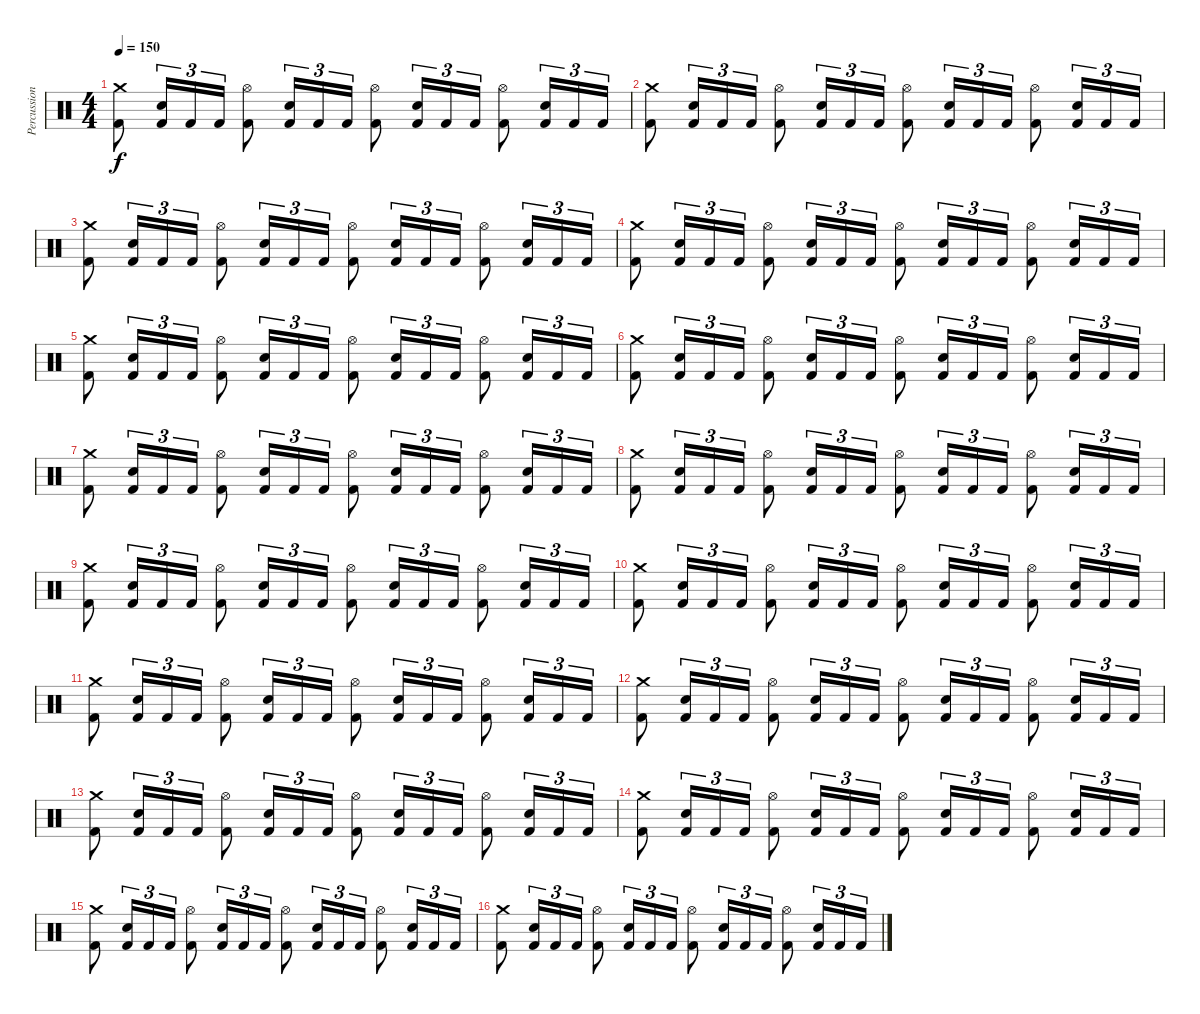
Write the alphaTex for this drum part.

\track ("Percussion" "Percussion") {instrument percussion}
\staff {score}
\articulation defaults
\ts (4 4)
\tempo 150
\clef neutral
\ks c
("Kick (hit) 2" "Crash medium (hit)").8{dy f} ("Kick (hit) 2" "Snare (hit) 2").16{tu (3 2)} "Kick (hit) 2".16{tu (3 2)} "Kick (hit) 2".16{tu (3 2)} ("Kick (hit) 2" "Hi-Hat (open)").8 ("Kick (hit) 2" "Snare (hit) 2").16{tu (3 2)} "Kick (hit) 2".16{tu (3 2)} "Kick (hit) 2".16{tu (3 2)} ("Kick (hit) 2" "Hi-Hat (open)").8 ("Kick (hit) 2" "Snare (hit) 2").16{tu (3 2)} "Kick (hit) 2".16{tu (3 2)} "Kick (hit) 2".16{tu (3 2)} ("Kick (hit) 2" "Hi-Hat (open)").8 ("Kick (hit) 2" "Snare (hit) 2").16{tu (3 2)} "Kick (hit) 2".16{tu (3 2)} "Kick (hit) 2".16{tu (3 2)} |
("Kick (hit) 2" "Crash medium (hit)").8 ("Kick (hit) 2" "Snare (hit) 2").16{tu (3 2)} "Kick (hit) 2".16{tu (3 2)} "Kick (hit) 2".16{tu (3 2)} ("Kick (hit) 2" "Hi-Hat (open)").8 ("Kick (hit) 2" "Snare (hit) 2").16{tu (3 2)} "Kick (hit) 2".16{tu (3 2)} "Kick (hit) 2".16{tu (3 2)} ("Kick (hit) 2" "Hi-Hat (open)").8 ("Kick (hit) 2" "Snare (hit) 2").16{tu (3 2)} "Kick (hit) 2".16{tu (3 2)} "Kick (hit) 2".16{tu (3 2)} ("Kick (hit) 2" "Hi-Hat (open)").8 ("Kick (hit) 2" "Snare (hit) 2").16{tu (3 2)} "Kick (hit) 2".16{tu (3 2)} "Kick (hit) 2".16{tu (3 2)} |
("Kick (hit) 2" "Crash medium (hit)").8 ("Kick (hit) 2" "Snare (hit) 2").16{tu (3 2)} "Kick (hit) 2".16{tu (3 2)} "Kick (hit) 2".16{tu (3 2)} ("Kick (hit) 2" "Hi-Hat (open)").8 ("Kick (hit) 2" "Snare (hit) 2").16{tu (3 2)} "Kick (hit) 2".16{tu (3 2)} "Kick (hit) 2".16{tu (3 2)} ("Kick (hit) 2" "Hi-Hat (open)").8 ("Kick (hit) 2" "Snare (hit) 2").16{tu (3 2)} "Kick (hit) 2".16{tu (3 2)} "Kick (hit) 2".16{tu (3 2)} ("Kick (hit) 2" "Hi-Hat (open)").8 ("Kick (hit) 2" "Snare (hit) 2").16{tu (3 2)} "Kick (hit) 2".16{tu (3 2)} "Kick (hit) 2".16{tu (3 2)} |
("Kick (hit) 2" "Crash medium (hit)").8 ("Kick (hit) 2" "Snare (hit) 2").16{tu (3 2)} "Kick (hit) 2".16{tu (3 2)} "Kick (hit) 2".16{tu (3 2)} ("Kick (hit) 2" "Hi-Hat (open)").8 ("Kick (hit) 2" "Snare (hit) 2").16{tu (3 2)} "Kick (hit) 2".16{tu (3 2)} "Kick (hit) 2".16{tu (3 2)} ("Kick (hit) 2" "Hi-Hat (open)").8 ("Kick (hit) 2" "Snare (hit) 2").16{tu (3 2)} "Kick (hit) 2".16{tu (3 2)} "Kick (hit) 2".16{tu (3 2)} ("Kick (hit) 2" "Hi-Hat (open)").8 ("Kick (hit) 2" "Snare (hit) 2").16{tu (3 2)} "Kick (hit) 2".16{tu (3 2)} "Kick (hit) 2".16{tu (3 2)} |
("Kick (hit) 2" "Crash medium (hit)").8 ("Kick (hit) 2" "Snare (hit) 2").16{tu (3 2)} "Kick (hit) 2".16{tu (3 2)} "Kick (hit) 2".16{tu (3 2)} ("Kick (hit) 2" "Hi-Hat (open)").8 ("Kick (hit) 2" "Snare (hit) 2").16{tu (3 2)} "Kick (hit) 2".16{tu (3 2)} "Kick (hit) 2".16{tu (3 2)} ("Kick (hit) 2" "Hi-Hat (open)").8 ("Kick (hit) 2" "Snare (hit) 2").16{tu (3 2)} "Kick (hit) 2".16{tu (3 2)} "Kick (hit) 2".16{tu (3 2)} ("Kick (hit) 2" "Hi-Hat (open)").8 ("Kick (hit) 2" "Snare (hit) 2").16{tu (3 2)} "Kick (hit) 2".16{tu (3 2)} "Kick (hit) 2".16{tu (3 2)} |
("Kick (hit) 2" "Crash medium (hit)").8 ("Kick (hit) 2" "Snare (hit) 2").16{tu (3 2)} "Kick (hit) 2".16{tu (3 2)} "Kick (hit) 2".16{tu (3 2)} ("Kick (hit) 2" "Hi-Hat (open)").8 ("Kick (hit) 2" "Snare (hit) 2").16{tu (3 2)} "Kick (hit) 2".16{tu (3 2)} "Kick (hit) 2".16{tu (3 2)} ("Kick (hit) 2" "Hi-Hat (open)").8 ("Kick (hit) 2" "Snare (hit) 2").16{tu (3 2)} "Kick (hit) 2".16{tu (3 2)} "Kick (hit) 2".16{tu (3 2)} ("Kick (hit) 2" "Hi-Hat (open)").8 ("Kick (hit) 2" "Snare (hit) 2").16{tu (3 2)} "Kick (hit) 2".16{tu (3 2)} "Kick (hit) 2".16{tu (3 2)} |
("Kick (hit) 2" "Crash medium (hit)").8 ("Kick (hit) 2" "Snare (hit) 2").16{tu (3 2)} "Kick (hit) 2".16{tu (3 2)} "Kick (hit) 2".16{tu (3 2)} ("Kick (hit) 2" "Hi-Hat (open)").8 ("Kick (hit) 2" "Snare (hit) 2").16{tu (3 2)} "Kick (hit) 2".16{tu (3 2)} "Kick (hit) 2".16{tu (3 2)} ("Kick (hit) 2" "Hi-Hat (open)").8 ("Kick (hit) 2" "Snare (hit) 2").16{tu (3 2)} "Kick (hit) 2".16{tu (3 2)} "Kick (hit) 2".16{tu (3 2)} ("Kick (hit) 2" "Hi-Hat (open)").8 ("Kick (hit) 2" "Snare (hit) 2").16{tu (3 2)} "Kick (hit) 2".16{tu (3 2)} "Kick (hit) 2".16{tu (3 2)} |
("Kick (hit) 2" "Crash medium (hit)").8 ("Kick (hit) 2" "Snare (hit) 2").16{tu (3 2)} "Kick (hit) 2".16{tu (3 2)} "Kick (hit) 2".16{tu (3 2)} ("Kick (hit) 2" "Hi-Hat (open)").8 ("Kick (hit) 2" "Snare (hit) 2").16{tu (3 2)} "Kick (hit) 2".16{tu (3 2)} "Kick (hit) 2".16{tu (3 2)} ("Kick (hit) 2" "Hi-Hat (open)").8 ("Kick (hit) 2" "Snare (hit) 2").16{tu (3 2)} "Kick (hit) 2".16{tu (3 2)} "Kick (hit) 2".16{tu (3 2)} ("Kick (hit) 2" "Hi-Hat (open)").8 ("Kick (hit) 2" "Snare (hit) 2").16{tu (3 2)} "Kick (hit) 2".16{tu (3 2)} "Kick (hit) 2".16{tu (3 2)} |
("Kick (hit) 2" "Crash medium (hit)").8 ("Kick (hit) 2" "Snare (hit) 2").16{tu (3 2)} "Kick (hit) 2".16{tu (3 2)} "Kick (hit) 2".16{tu (3 2)} ("Kick (hit) 2" "Hi-Hat (open)").8 ("Kick (hit) 2" "Snare (hit) 2").16{tu (3 2)} "Kick (hit) 2".16{tu (3 2)} "Kick (hit) 2".16{tu (3 2)} ("Kick (hit) 2" "Hi-Hat (open)").8 ("Kick (hit) 2" "Snare (hit) 2").16{tu (3 2)} "Kick (hit) 2".16{tu (3 2)} "Kick (hit) 2".16{tu (3 2)} ("Kick (hit) 2" "Hi-Hat (open)").8 ("Kick (hit) 2" "Snare (hit) 2").16{tu (3 2)} "Kick (hit) 2".16{tu (3 2)} "Kick (hit) 2".16{tu (3 2)} |
("Kick (hit) 2" "Crash medium (hit)").8 ("Kick (hit) 2" "Snare (hit) 2").16{tu (3 2)} "Kick (hit) 2".16{tu (3 2)} "Kick (hit) 2".16{tu (3 2)} ("Kick (hit) 2" "Hi-Hat (open)").8 ("Kick (hit) 2" "Snare (hit) 2").16{tu (3 2)} "Kick (hit) 2".16{tu (3 2)} "Kick (hit) 2".16{tu (3 2)} ("Kick (hit) 2" "Hi-Hat (open)").8 ("Kick (hit) 2" "Snare (hit) 2").16{tu (3 2)} "Kick (hit) 2".16{tu (3 2)} "Kick (hit) 2".16{tu (3 2)} ("Kick (hit) 2" "Hi-Hat (open)").8 ("Kick (hit) 2" "Snare (hit) 2").16{tu (3 2)} "Kick (hit) 2".16{tu (3 2)} "Kick (hit) 2".16{tu (3 2)} |
("Kick (hit) 2" "Crash medium (hit)").8 ("Kick (hit) 2" "Snare (hit) 2").16{tu (3 2)} "Kick (hit) 2".16{tu (3 2)} "Kick (hit) 2".16{tu (3 2)} ("Kick (hit) 2" "Hi-Hat (open)").8 ("Kick (hit) 2" "Snare (hit) 2").16{tu (3 2)} "Kick (hit) 2".16{tu (3 2)} "Kick (hit) 2".16{tu (3 2)} ("Kick (hit) 2" "Hi-Hat (open)").8 ("Kick (hit) 2" "Snare (hit) 2").16{tu (3 2)} "Kick (hit) 2".16{tu (3 2)} "Kick (hit) 2".16{tu (3 2)} ("Kick (hit) 2" "Hi-Hat (open)").8 ("Kick (hit) 2" "Snare (hit) 2").16{tu (3 2)} "Kick (hit) 2".16{tu (3 2)} "Kick (hit) 2".16{tu (3 2)} |
("Kick (hit) 2" "Crash medium (hit)").8 ("Kick (hit) 2" "Snare (hit) 2").16{tu (3 2)} "Kick (hit) 2".16{tu (3 2)} "Kick (hit) 2".16{tu (3 2)} ("Kick (hit) 2" "Hi-Hat (open)").8 ("Kick (hit) 2" "Snare (hit) 2").16{tu (3 2)} "Kick (hit) 2".16{tu (3 2)} "Kick (hit) 2".16{tu (3 2)} ("Kick (hit) 2" "Hi-Hat (open)").8 ("Kick (hit) 2" "Snare (hit) 2").16{tu (3 2)} "Kick (hit) 2".16{tu (3 2)} "Kick (hit) 2".16{tu (3 2)} ("Kick (hit) 2" "Hi-Hat (open)").8 ("Kick (hit) 2" "Snare (hit) 2").16{tu (3 2)} "Kick (hit) 2".16{tu (3 2)} "Kick (hit) 2".16{tu (3 2)} |
("Kick (hit) 2" "Crash medium (hit)").8 ("Kick (hit) 2" "Snare (hit) 2").16{tu (3 2)} "Kick (hit) 2".16{tu (3 2)} "Kick (hit) 2".16{tu (3 2)} ("Kick (hit) 2" "Hi-Hat (open)").8 ("Kick (hit) 2" "Snare (hit) 2").16{tu (3 2)} "Kick (hit) 2".16{tu (3 2)} "Kick (hit) 2".16{tu (3 2)} ("Kick (hit) 2" "Hi-Hat (open)").8 ("Kick (hit) 2" "Snare (hit) 2").16{tu (3 2)} "Kick (hit) 2".16{tu (3 2)} "Kick (hit) 2".16{tu (3 2)} ("Kick (hit) 2" "Hi-Hat (open)").8 ("Kick (hit) 2" "Snare (hit) 2").16{tu (3 2)} "Kick (hit) 2".16{tu (3 2)} "Kick (hit) 2".16{tu (3 2)} |
("Kick (hit) 2" "Crash medium (hit)").8 ("Kick (hit) 2" "Snare (hit) 2").16{tu (3 2)} "Kick (hit) 2".16{tu (3 2)} "Kick (hit) 2".16{tu (3 2)} ("Kick (hit) 2" "Hi-Hat (open)").8 ("Kick (hit) 2" "Snare (hit) 2").16{tu (3 2)} "Kick (hit) 2".16{tu (3 2)} "Kick (hit) 2".16{tu (3 2)} ("Kick (hit) 2" "Hi-Hat (open)").8 ("Kick (hit) 2" "Snare (hit) 2").16{tu (3 2)} "Kick (hit) 2".16{tu (3 2)} "Kick (hit) 2".16{tu (3 2)} ("Kick (hit) 2" "Hi-Hat (open)").8 ("Kick (hit) 2" "Snare (hit) 2").16{tu (3 2)} "Kick (hit) 2".16{tu (3 2)} "Kick (hit) 2".16{tu (3 2)} |
("Kick (hit) 2" "Crash medium (hit)").8 ("Kick (hit) 2" "Snare (hit) 2").16{tu (3 2)} "Kick (hit) 2".16{tu (3 2)} "Kick (hit) 2".16{tu (3 2)} ("Kick (hit) 2" "Hi-Hat (open)").8 ("Kick (hit) 2" "Snare (hit) 2").16{tu (3 2)} "Kick (hit) 2".16{tu (3 2)} "Kick (hit) 2".16{tu (3 2)} ("Kick (hit) 2" "Hi-Hat (open)").8 ("Kick (hit) 2" "Snare (hit) 2").16{tu (3 2)} "Kick (hit) 2".16{tu (3 2)} "Kick (hit) 2".16{tu (3 2)} ("Kick (hit) 2" "Hi-Hat (open)").8 ("Kick (hit) 2" "Snare (hit) 2").16{tu (3 2)} "Kick (hit) 2".16{tu (3 2)} "Kick (hit) 2".16{tu (3 2)} |
("Kick (hit) 2" "Crash medium (hit)").8 ("Kick (hit) 2" "Snare (hit) 2").16{tu (3 2)} "Kick (hit) 2".16{tu (3 2)} "Kick (hit) 2".16{tu (3 2)} ("Kick (hit) 2" "Hi-Hat (open)").8 ("Kick (hit) 2" "Snare (hit) 2").16{tu (3 2)} "Kick (hit) 2".16{tu (3 2)} "Kick (hit) 2".16{tu (3 2)} ("Kick (hit) 2" "Hi-Hat (open)").8 ("Kick (hit) 2" "Snare (hit) 2").16{tu (3 2)} "Kick (hit) 2".16{tu (3 2)} "Kick (hit) 2".16{tu (3 2)} ("Kick (hit) 2" "Hi-Hat (open)").8 ("Kick (hit) 2" "Snare (hit) 2").16{tu (3 2)} "Kick (hit) 2".16{tu (3 2)} "Kick (hit) 2".16{tu (3 2)}
